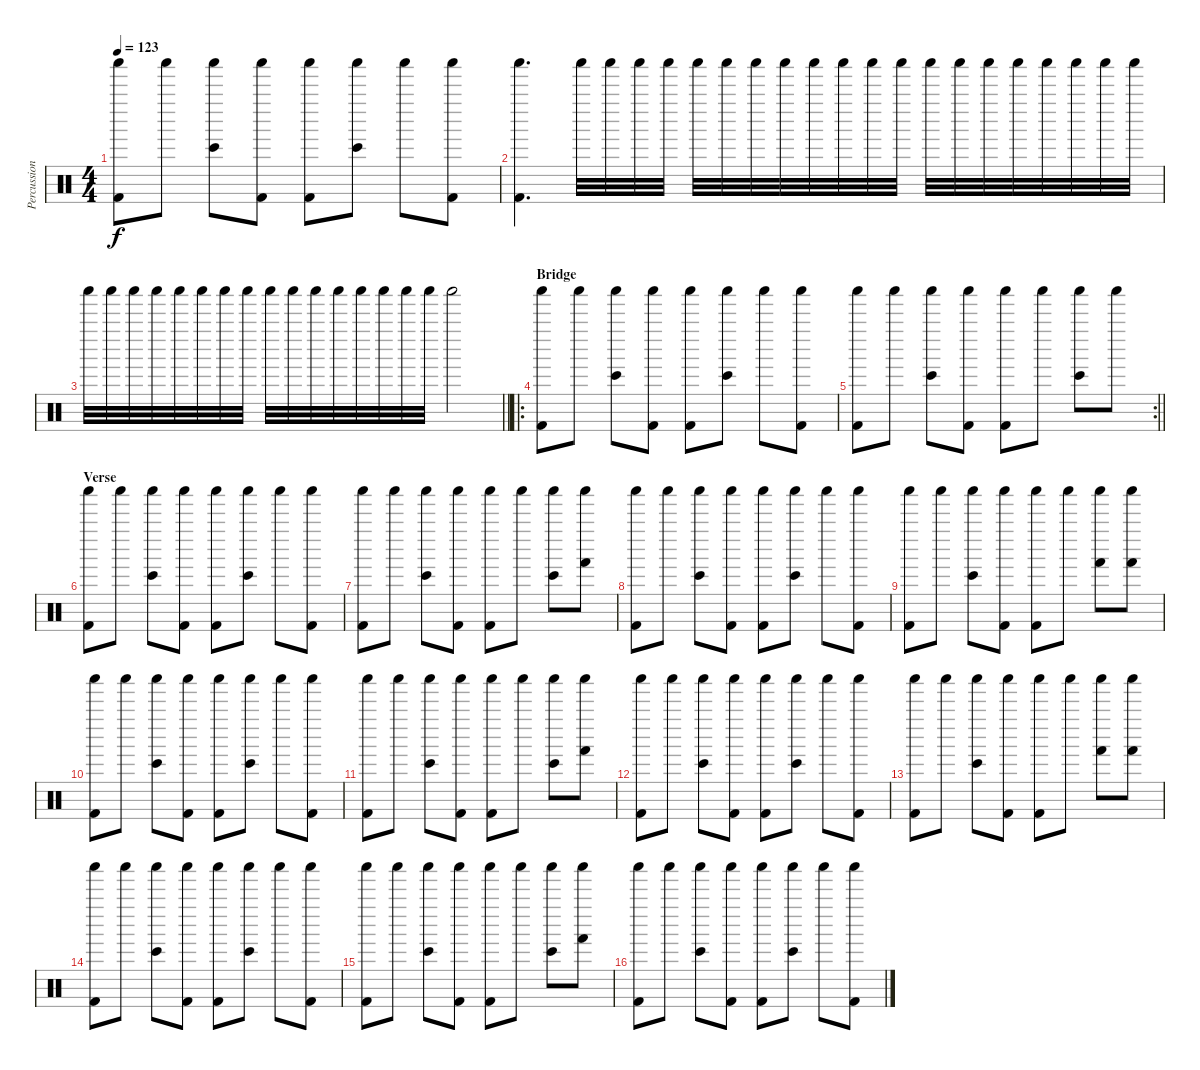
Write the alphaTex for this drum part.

\track ("Percussion" "Percussion") {instrument percussion}
\staff {score}
\articulation defaults
\ts (4 4)
\tempo 123
\clef neutral
\ks c
("Shaker (hit)" "Kick (hit) 2").8{dy f} "Shaker (hit)".8 ("Shaker (hit)" "Bongo High (hit)").8 ("Shaker (hit)" "Kick (hit) 2").8 ("Shaker (hit)" "Kick (hit) 2").8 ("Shaker (hit)" "Bongo High (hit)").8 "Shaker (hit)".8 ("Shaker (hit)" "Kick (hit) 2").8 |
("Shaker (hit)" "Kick (hit) 2").4{d} "Shaker (hit)".32{balance 1} "Shaker (hit)".32 "Shaker (hit)".32 "Shaker (hit)".32 "Shaker (hit)".32 "Shaker (hit)".32 "Shaker (hit)".32 "Shaker (hit)".32 "Shaker (hit)".32 "Shaker (hit)".32 "Shaker (hit)".32 "Shaker (hit)".32 "Shaker (hit)".32 "Shaker (hit)".32 "Shaker (hit)".32 "Shaker (hit)".32 "Shaker (hit)".32 "Shaker (hit)".32 "Shaker (hit)".32 "Shaker (hit)".32 |
\barLineRight lightlight "Shaker (hit)".32{balance 16} "Shaker (hit)".32 "Shaker (hit)".32 "Shaker (hit)".32 "Shaker (hit)".32 "Shaker (hit)".32 "Shaker (hit)".32 "Shaker (hit)".32 "Shaker (hit)".32 "Shaker (hit)".32 "Shaker (hit)".32 "Shaker (hit)".32 "Shaker (hit)".32 "Shaker (hit)".32 "Shaker (hit)".32 "Shaker (hit)".32 "Shaker (hit)".2
|
\ro
\section ("" "Bridge")
("Shaker (hit)" "Kick (hit) 2").8{balance 8} "Shaker (hit)".8 ("Shaker (hit)" "Bongo High (hit)").8 ("Shaker (hit)" "Kick (hit) 2").8 ("Shaker (hit)" "Kick (hit) 2").8 ("Shaker (hit)" "Bongo High (hit)").8 "Shaker (hit)".8 ("Shaker (hit)" "Kick (hit) 2").8 |
\rc 2
\barLineRight lightlight
("Shaker (hit)" "Kick (hit) 2").8 "Shaker (hit)".8 ("Shaker (hit)" "Bongo High (hit)").8 ("Shaker (hit)" "Kick (hit) 2").8 ("Shaker (hit)" "Kick (hit) 2").8 "Shaker (hit)".8 ("Shaker (hit)" "Bongo High (hit)").8 "Shaker (hit)".8 |
\section ("" "Verse")
("Shaker (hit)" "Kick (hit) 2").8 "Shaker (hit)".8 ("Shaker (hit)" "Bongo High (hit)").8 ("Shaker (hit)" "Kick (hit) 2").8 ("Shaker (hit)" "Kick (hit) 2").8 ("Shaker (hit)" "Bongo High (hit)").8 "Shaker (hit)".8 ("Shaker (hit)" "Kick (hit) 2").8 |
("Shaker (hit)" "Kick (hit) 2").8 "Shaker (hit)".8 ("Shaker (hit)" "Bongo High (hit)").8 ("Shaker (hit)" "Kick (hit) 2").8 ("Shaker (hit)" "Kick (hit) 2").8 "Shaker (hit)".8 ("Shaker (hit)" "Bongo High (hit)").8 ("Shaker (hit)" "Hand (hit)").8 |
("Shaker (hit)" "Kick (hit) 2").8 "Shaker (hit)".8 ("Shaker (hit)" "Bongo High (hit)").8 ("Shaker (hit)" "Kick (hit) 2").8 ("Shaker (hit)" "Kick (hit) 2").8 ("Shaker (hit)" "Bongo High (hit)").8 "Shaker (hit)".8 ("Shaker (hit)" "Kick (hit) 2").8 |
("Shaker (hit)" "Kick (hit) 2").8 "Shaker (hit)".8 ("Shaker (hit)" "Bongo High (hit)").8 ("Shaker (hit)" "Kick (hit) 2").8 ("Shaker (hit)" "Kick (hit) 2").8 "Shaker (hit)".8 ("Shaker (hit)" "Hand (hit)").8 ("Shaker (hit)" "Hand (hit)").8 |
("Shaker (hit)" "Kick (hit) 2").8 "Shaker (hit)".8 ("Shaker (hit)" "Bongo High (hit)").8 ("Shaker (hit)" "Kick (hit) 2").8 ("Shaker (hit)" "Kick (hit) 2").8 ("Shaker (hit)" "Bongo High (hit)").8 "Shaker (hit)".8 ("Shaker (hit)" "Kick (hit) 2").8 |
("Shaker (hit)" "Kick (hit) 2").8 "Shaker (hit)".8 ("Shaker (hit)" "Bongo High (hit)").8 ("Shaker (hit)" "Kick (hit) 2").8 ("Shaker (hit)" "Kick (hit) 2").8 "Shaker (hit)".8 ("Shaker (hit)" "Bongo High (hit)").8 ("Shaker (hit)" "Hand (hit)").8 |
("Shaker (hit)" "Kick (hit) 2").8 "Shaker (hit)".8 ("Shaker (hit)" "Bongo High (hit)").8 ("Shaker (hit)" "Kick (hit) 2").8 ("Shaker (hit)" "Kick (hit) 2").8 ("Shaker (hit)" "Bongo High (hit)").8 "Shaker (hit)".8 ("Shaker (hit)" "Kick (hit) 2").8 |
("Shaker (hit)" "Kick (hit) 2").8 "Shaker (hit)".8 ("Shaker (hit)" "Bongo High (hit)").8 ("Shaker (hit)" "Kick (hit) 2").8 ("Shaker (hit)" "Kick (hit) 2").8 "Shaker (hit)".8 ("Shaker (hit)" "Hand (hit)").8 ("Shaker (hit)" "Hand (hit)").8 |
("Shaker (hit)" "Kick (hit) 2").8 "Shaker (hit)".8 ("Shaker (hit)" "Bongo High (hit)").8 ("Shaker (hit)" "Kick (hit) 2").8 ("Shaker (hit)" "Kick (hit) 2").8 ("Shaker (hit)" "Bongo High (hit)").8 "Shaker (hit)".8 ("Shaker (hit)" "Kick (hit) 2").8 |
("Shaker (hit)" "Kick (hit) 2").8 "Shaker (hit)".8 ("Shaker (hit)" "Bongo High (hit)").8 ("Shaker (hit)" "Kick (hit) 2").8 ("Shaker (hit)" "Kick (hit) 2").8 "Shaker (hit)".8 ("Shaker (hit)" "Bongo High (hit)").8 ("Shaker (hit)" "Hand (hit)").8 |
("Shaker (hit)" "Kick (hit) 2").8 "Shaker (hit)".8 ("Shaker (hit)" "Bongo High (hit)").8 ("Shaker (hit)" "Kick (hit) 2").8 ("Shaker (hit)" "Kick (hit) 2").8 ("Shaker (hit)" "Bongo High (hit)").8 "Shaker (hit)".8 ("Shaker (hit)" "Kick (hit) 2").8
